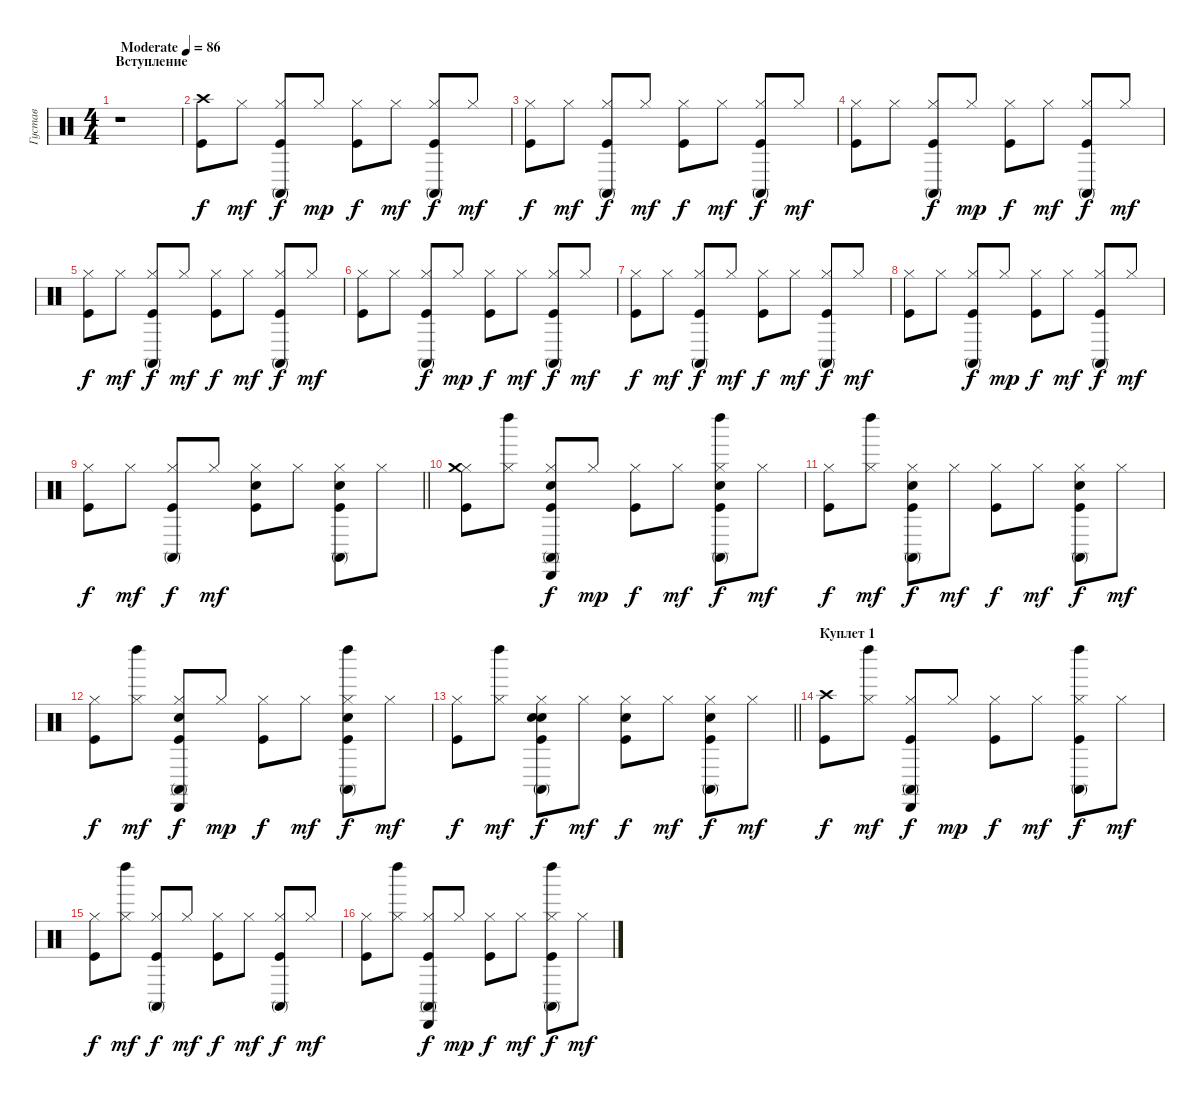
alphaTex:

\track ("Густав" "Густав") {instrument percussion}
\staff {score}
\articulation defaults
\ts (4 4)
\section ("" "Вступление")
\tempo (86 "Moderate")
\clef neutral
\ks c
r.1{dy f} |
("Crash high (hit)" "Kick (hit)").8 "Hi-Hat (closed)".8{dy mf} ("Conga high (mute)" "Hi-Hat (closed)" "Kick (hit)").8{dy f} "Hi-Hat (closed)".8{dy mp} ("Hi-Hat (closed)" "Kick (hit)").8{dy f} "Hi-Hat (closed)".8{dy mf} ("Conga high (mute)" "Hi-Hat (closed)" "Kick (hit)").8{dy f} "Hi-Hat (closed)".8{dy mf} |
("Hi-Hat (closed)" "Kick (hit)").8{dy f} "Hi-Hat (closed)".8{dy mf} ("Conga high (mute)" "Hi-Hat (closed)" "Kick (hit)").8{dy f} "Hi-Hat (closed)".8{dy mf} ("Hi-Hat (closed)" "Kick (hit)").8{dy f} "Hi-Hat (closed)".8{dy mf} ("Conga high (mute)" "Hi-Hat (closed)" "Kick (hit)").8{dy f} "Hi-Hat (closed)".8{dy mf} |
("Hi-Hat (closed)" "Kick (hit)").8 "Hi-Hat (closed)".8 ("Conga high (mute)" "Hi-Hat (closed)" "Kick (hit)").8{dy f} "Hi-Hat (closed)".8{dy mp} ("Hi-Hat (closed)" "Kick (hit)").8{dy f} "Hi-Hat (closed)".8{dy mf} ("Conga high (mute)" "Hi-Hat (closed)" "Kick (hit)").8{dy f} "Hi-Hat (closed)".8{dy mf} |
("Hi-Hat (closed)" "Kick (hit)").8{dy f} "Hi-Hat (closed)".8{dy mf} ("Conga high (mute)" "Hi-Hat (closed)" "Kick (hit)").8{dy f} "Hi-Hat (closed)".8{dy mf} ("Hi-Hat (closed)" "Kick (hit)").8{dy f} "Hi-Hat (closed)".8{dy mf} ("Conga high (mute)" "Hi-Hat (closed)" "Kick (hit)").8{dy f} "Hi-Hat (closed)".8{dy mf} |
("Hi-Hat (closed)" "Kick (hit)").8 "Hi-Hat (closed)".8 ("Conga high (mute)" "Hi-Hat (closed)" "Kick (hit)").8{dy f} "Hi-Hat (closed)".8{dy mp} ("Hi-Hat (closed)" "Kick (hit)").8{dy f} "Hi-Hat (closed)".8{dy mf} ("Conga high (mute)" "Hi-Hat (closed)" "Kick (hit)").8{dy f} "Hi-Hat (closed)".8{dy mf} |
("Hi-Hat (closed)" "Kick (hit)").8{dy f} "Hi-Hat (closed)".8{dy mf} ("Conga high (mute)" "Hi-Hat (closed)" "Kick (hit)").8{dy f} "Hi-Hat (closed)".8{dy mf} ("Hi-Hat (closed)" "Kick (hit)").8{dy f} "Hi-Hat (closed)".8{dy mf} ("Conga high (mute)" "Hi-Hat (closed)" "Kick (hit)").8{dy f} "Hi-Hat (closed)".8{dy mf} |
("Hi-Hat (closed)" "Kick (hit)").8 "Hi-Hat (closed)".8 ("Conga high (mute)" "Hi-Hat (closed)" "Kick (hit)").8{dy f} "Hi-Hat (closed)".8{dy mp} ("Hi-Hat (closed)" "Kick (hit)").8{dy f} "Hi-Hat (closed)".8{dy mf} ("Conga high (mute)" "Hi-Hat (closed)" "Kick (hit)").8{dy f} "Hi-Hat (closed)".8{dy mf} |
\barLineRight lightlight
("Hi-Hat (closed)" "Kick (hit)").8{dy f} "Hi-Hat (closed)".8{dy mf} ("Conga high (mute)" "Hi-Hat (closed)" "Kick (hit)").8{dy f} "Hi-Hat (closed)".8{dy mf} ("Hi-Hat (closed)" "Kick (hit)" "Snare (hit) 2").8 "Hi-Hat (closed)".8 ("Snare (hit) 2" "Conga high (mute)" "Hi-Hat (closed)" "Kick (hit)").8 "Hi-Hat (closed)".8 |
("Hi-Hat (closed)" "Crash medium (hit)" "Kick (hit)").8 ("Hi-Hat (closed)" "Left Maraca (hit)").8 ("Cabasa (hit)" "Snare (hit) 2" "Conga high (mute)" "Hi-Hat (closed)" "Kick (hit)").8{dy f} "Hi-Hat (closed)".8{dy mp} ("Hi-Hat (closed)" "Kick (hit)").8{dy f} "Hi-Hat (closed)".8{dy mf} ("Left Maraca (hit)" "Snare (hit) 2" "Conga high (mute)" "Hi-Hat (closed)" "Kick (hit)").8{dy f} "Hi-Hat (closed)".8{dy mf} |
("Hi-Hat (closed)" "Kick (hit)").8{dy f} ("Hi-Hat (closed)" "Left Maraca (hit)").8{dy mf} ("Snare (hit) 2" "Conga high (mute)" "Hi-Hat (closed)" "Kick (hit)").8{dy f} "Hi-Hat (closed)".8{dy mf} ("Hi-Hat (closed)" "Kick (hit)").8{dy f} "Hi-Hat (closed)".8{dy mf} ("Snare (hit) 2" "Conga high (mute)" "Hi-Hat (closed)" "Kick (hit)").8{dy f} "Hi-Hat (closed)".8{dy mf} |
("Hi-Hat (closed)" "Kick (hit)").8{dy f} ("Hi-Hat (closed)" "Left Maraca (hit)").8{dy mf} ("Cabasa (hit)" "Snare (hit) 2" "Conga high (mute)" "Hi-Hat (closed)" "Kick (hit)").8{dy f} "Hi-Hat (closed)".8{dy mp} ("Hi-Hat (closed)" "Kick (hit)").8{dy f} "Hi-Hat (closed)".8{dy mf} ("Left Maraca (hit)" "Snare (hit) 2" "Conga high (mute)" "Hi-Hat (closed)" "Kick (hit)").8{dy f} "Hi-Hat (closed)".8{dy mf} |
\barLineRight lightlight
("Hi-Hat (closed)" "Kick (hit)").8{dy f} ("Hi-Hat (closed)" "Left Maraca (hit)").8{dy mf} ("Snare (hit) 2" "Conga high (mute)" "Hi-Hat (closed)" "Kick (hit)" "Snare (hit) 2").8{dy f} "Hi-Hat (closed)".8{dy mf} ("Hi-Hat (closed)" "Kick (hit)" "Snare (hit) 2").8{dy f} "Hi-Hat (closed)".8{dy mf} ("Snare (hit) 2" "Conga high (mute)" "Hi-Hat (closed)" "Kick (hit)").8{dy f} "Hi-Hat (closed)".8{dy mf} |
\section ("" "Куплет 1")
("Crash high (hit)" "Kick (hit)").8{dy f} ("Hi-Hat (closed)" "Left Maraca (hit)").8{dy mf} ("Cabasa (hit)" "Conga high (mute)" "Hi-Hat (closed)" "Kick (hit)").8{dy f} "Hi-Hat (closed)".8{dy mp} ("Hi-Hat (closed)" "Kick (hit)").8{dy f} "Hi-Hat (closed)".8{dy mf} ("Left Maraca (hit)" "Conga high (mute)" "Hi-Hat (closed)" "Kick (hit)").8{dy f} "Hi-Hat (closed)".8{dy mf} |
("Hi-Hat (closed)" "Kick (hit)").8{dy f} ("Hi-Hat (closed)" "Left Maraca (hit)").8{dy mf} ("Conga high (mute)" "Hi-Hat (closed)" "Kick (hit)").8{dy f} "Hi-Hat (closed)".8{dy mf} ("Hi-Hat (closed)" "Kick (hit)").8{dy f} "Hi-Hat (closed)".8{dy mf} ("Conga high (mute)" "Hi-Hat (closed)" "Kick (hit)").8{dy f} "Hi-Hat (closed)".8{dy mf} |
("Hi-Hat (closed)" "Kick (hit)").8 ("Hi-Hat (closed)" "Left Maraca (hit)").8 ("Cabasa (hit)" "Conga high (mute)" "Hi-Hat (closed)" "Kick (hit)").8{dy f} "Hi-Hat (closed)".8{dy mp} ("Hi-Hat (closed)" "Kick (hit)").8{dy f} "Hi-Hat (closed)".8{dy mf} ("Conga high (mute)" "Hi-Hat (closed)" "Kick (hit)" "Left Maraca (hit)").8{dy f} "Hi-Hat (closed)".8{dy mf}
